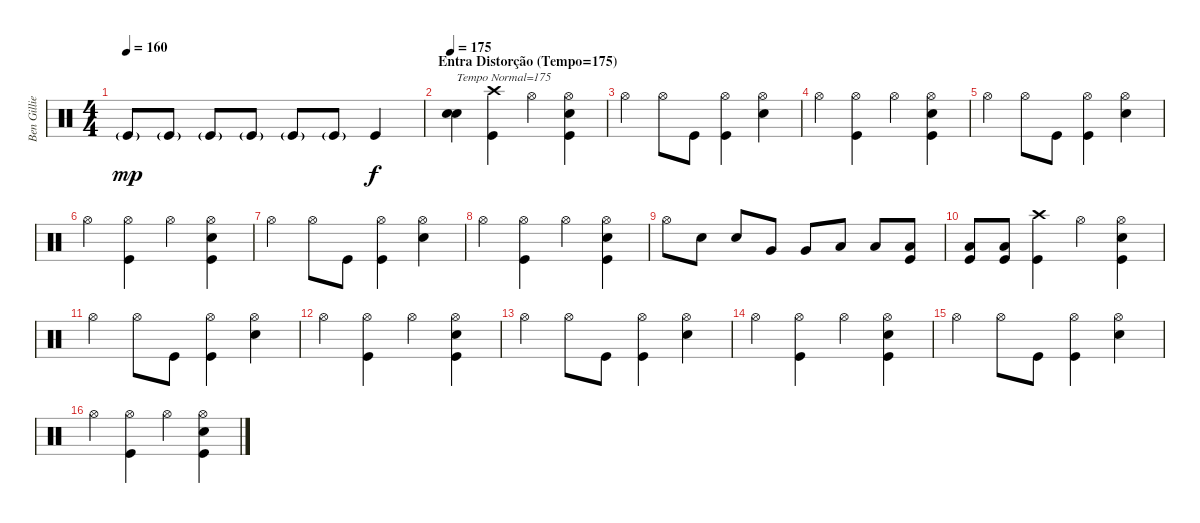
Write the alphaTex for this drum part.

\track ("Ben Gillies" "Ben Gillie") {instrument percussion}
\staff {score}
\articulation defaults
\ts (4 4)
\tempo 160
\clef neutral
\ks c "Kick (hit)"{g}.8{dy mp} "Kick (hit)"{g}.8 "Kick (hit)"{g}.8 "Kick (hit)"{g}.8 "Kick (hit)"{g}.8 "Kick (hit)"{g}.8 "Kick (hit)".4{dy f}
|
\section ("" "Entra Distorção (Tempo=175)")
\tempo 175
("Snare (hit) 2" "Snare (hit) 2").4{bu 120 txt "Tempo Normal=175"} ("Kick (hit)" "Crash high (hit)").4 "Hi-Hat (open)".4 ("Kick (hit)" "Snare (hit) 2" "Hi-Hat (open)").4 |
"Hi-Hat (open)".4 "Hi-Hat (open)".8 "Kick (hit)".8 ("Kick (hit)" "Hi-Hat (open)").4 ("Snare (hit) 2" "Hi-Hat (open)").4 |
"Hi-Hat (open)".4 ("Kick (hit)" "Hi-Hat (open)").4 "Hi-Hat (open)".4 ("Kick (hit)" "Snare (hit) 2" "Hi-Hat (open)").4 |
"Hi-Hat (open)".4 "Hi-Hat (open)".8 "Kick (hit)".8 ("Kick (hit)" "Hi-Hat (open)").4 ("Snare (hit) 2" "Hi-Hat (open)").4 |
"Hi-Hat (open)".4 ("Kick (hit)" "Hi-Hat (open)").4 "Hi-Hat (open)".4 ("Kick (hit)" "Snare (hit) 2" "Hi-Hat (open)").4 |
"Hi-Hat (open)".4 "Hi-Hat (open)".8 "Kick (hit)".8 ("Kick (hit)" "Hi-Hat (open)").4 ("Snare (hit) 2" "Hi-Hat (open)").4 |
"Hi-Hat (open)".4 ("Kick (hit)" "Hi-Hat (open)").4 "Hi-Hat (open)".4 ("Kick (hit)" "Snare (hit) 2" "Hi-Hat (open)").4 |
"Hi-Hat (open)".8 "Snare (hit) 2".8 "Snare (hit) 2".8 "Very Low Tom (hit)".8 "Very Low Tom (hit)".8 "Low Floor Tom (hit)".8 "Low Floor Tom (hit)".8 ("Kick (hit)" "Low Floor Tom (hit)").8 |
("Kick (hit)" "Low Floor Tom (hit)").8 ("Kick (hit)" "Low Floor Tom (hit)").8 ("Kick (hit)" "Crash high (hit)").4 "Hi-Hat (open)".4 ("Kick (hit)" "Snare (hit) 2" "Hi-Hat (open)").4 |
"Hi-Hat (open)".4 "Hi-Hat (open)".8 "Kick (hit)".8 ("Kick (hit)" "Hi-Hat (open)").4 ("Snare (hit) 2" "Hi-Hat (open)").4 |
"Hi-Hat (open)".4 ("Kick (hit)" "Hi-Hat (open)").4 "Hi-Hat (open)".4 ("Kick (hit)" "Snare (hit) 2" "Hi-Hat (open)").4 |
"Hi-Hat (open)".4 "Hi-Hat (open)".8 "Kick (hit)".8 ("Kick (hit)" "Hi-Hat (open)").4 ("Snare (hit) 2" "Hi-Hat (open)").4 |
"Hi-Hat (open)".4 ("Kick (hit)" "Hi-Hat (open)").4 "Hi-Hat (open)".4 ("Kick (hit)" "Snare (hit) 2" "Hi-Hat (open)").4 |
"Hi-Hat (open)".4 "Hi-Hat (open)".8 "Kick (hit)".8 ("Kick (hit)" "Hi-Hat (open)").4 ("Snare (hit) 2" "Hi-Hat (open)").4 |
"Hi-Hat (open)".4 ("Kick (hit)" "Hi-Hat (open)").4 "Hi-Hat (open)".4 ("Kick (hit)" "Snare (hit) 2" "Hi-Hat (open)").4
